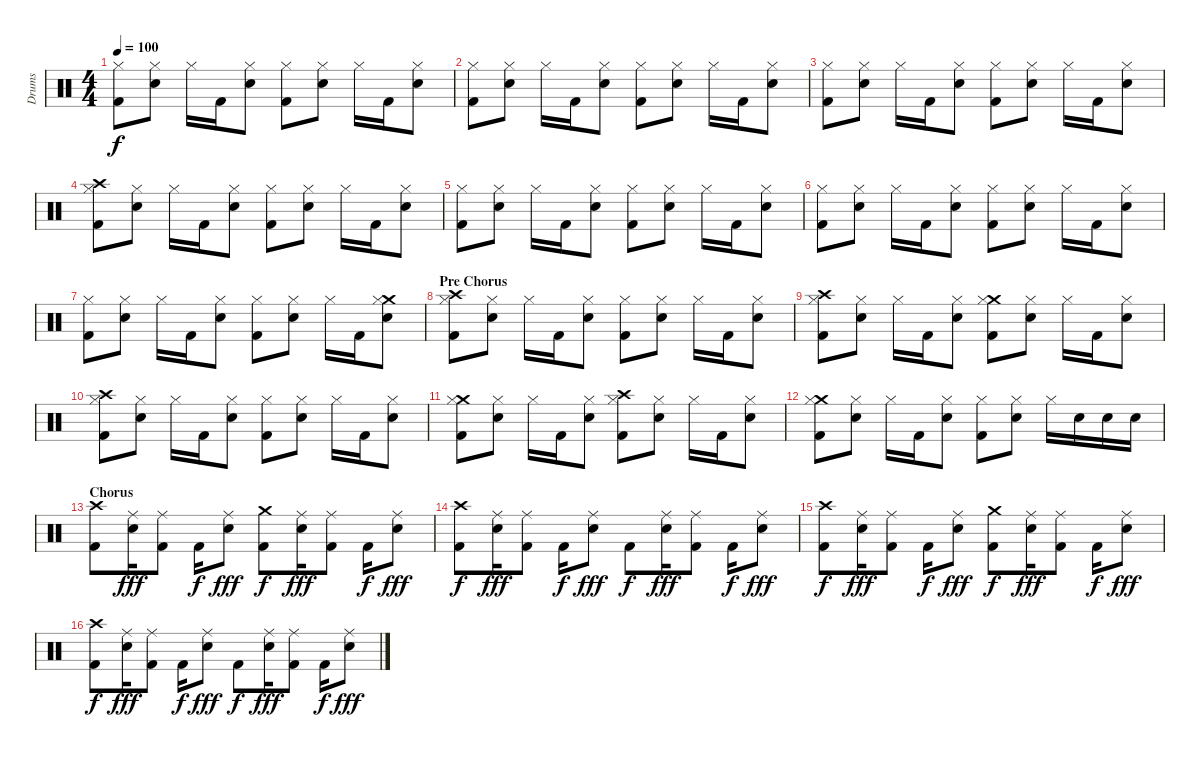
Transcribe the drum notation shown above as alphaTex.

\track ("Drums" "Drums") {instrument percussion}
\staff {score}
\articulation defaults
\ts (4 4)
\tempo 100
\clef neutral
\ks c
("Hi-Hat (closed)" "Kick (hit) 2").8{dy f} ("Hi-Hat (closed)" "Snare (hit) 2").8 "Hi-Hat (closed)".16 "Kick (hit) 2".16 ("Hi-Hat (closed)" "Snare (hit) 2").8 ("Hi-Hat (closed)" "Kick (hit) 2").8 ("Hi-Hat (closed)" "Snare (hit) 2").8 "Hi-Hat (closed)".16 "Kick (hit) 2".16 ("Hi-Hat (closed)" "Snare (hit) 2").8 |
("Hi-Hat (closed)" "Kick (hit) 2").8 ("Hi-Hat (closed)" "Snare (hit) 2").8 "Hi-Hat (closed)".16 "Kick (hit) 2".16 ("Hi-Hat (closed)" "Snare (hit) 2").8 ("Hi-Hat (closed)" "Kick (hit) 2").8 ("Hi-Hat (closed)" "Snare (hit) 2").8 "Hi-Hat (closed)".16 "Kick (hit) 2".16 ("Hi-Hat (closed)" "Snare (hit) 2").8 |
("Hi-Hat (closed)" "Kick (hit) 2").8 ("Hi-Hat (closed)" "Snare (hit) 2").8 "Hi-Hat (closed)".16 "Kick (hit) 2".16 ("Hi-Hat (closed)" "Snare (hit) 2").8 ("Hi-Hat (closed)" "Kick (hit) 2").8 ("Hi-Hat (closed)" "Snare (hit) 2").8 "Hi-Hat (closed)".16 "Kick (hit) 2".16 ("Hi-Hat (closed)" "Snare (hit) 2").8 |
("Crash high (hit)" "Hi-Hat (closed)" "Kick (hit) 2").8 ("Hi-Hat (closed)" "Snare (hit) 2").8 "Hi-Hat (closed)".16 "Kick (hit) 2".16 ("Hi-Hat (closed)" "Snare (hit) 2").8 ("Hi-Hat (closed)" "Kick (hit) 2").8 ("Hi-Hat (closed)" "Snare (hit) 2").8 "Hi-Hat (closed)".16 "Kick (hit) 2".16 ("Hi-Hat (closed)" "Snare (hit) 2").8 |
("Hi-Hat (closed)" "Kick (hit) 2").8 ("Hi-Hat (closed)" "Snare (hit) 2").8 "Hi-Hat (closed)".16 "Kick (hit) 2".16 ("Hi-Hat (closed)" "Snare (hit) 2").8 ("Hi-Hat (closed)" "Kick (hit) 2").8 ("Hi-Hat (closed)" "Snare (hit) 2").8 "Hi-Hat (closed)".16 "Kick (hit) 2".16 ("Hi-Hat (closed)" "Snare (hit) 2").8 |
("Hi-Hat (closed)" "Kick (hit) 2").8 ("Hi-Hat (closed)" "Snare (hit) 2").8 "Hi-Hat (closed)".16 "Kick (hit) 2".16 ("Hi-Hat (closed)" "Snare (hit) 2").8 ("Hi-Hat (closed)" "Kick (hit) 2").8 ("Hi-Hat (closed)" "Snare (hit) 2").8 "Hi-Hat (closed)".16 "Kick (hit) 2".16 ("Hi-Hat (closed)" "Snare (hit) 2").8 |
("Hi-Hat (closed)" "Kick (hit) 2").8 ("Hi-Hat (closed)" "Snare (hit) 2").8 "Hi-Hat (closed)".16 "Kick (hit) 2".16 ("Hi-Hat (closed)" "Snare (hit) 2").8 ("Hi-Hat (closed)" "Kick (hit) 2").8 ("Hi-Hat (closed)" "Snare (hit) 2").8 "Hi-Hat (closed)".16 "Kick (hit) 2".16 ("Crash medium (hit)" "Hi-Hat (closed)" "Snare (hit) 2").8 |
\section ("" "Pre Chorus")
("Crash high (hit)" "Hi-Hat (closed)" "Kick (hit) 2").8 ("Hi-Hat (closed)" "Snare (hit) 2").8 "Hi-Hat (closed)".16 "Kick (hit) 2".16 ("Hi-Hat (closed)" "Snare (hit) 2").8 ("Hi-Hat (closed)" "Kick (hit) 2").8 ("Hi-Hat (closed)" "Snare (hit) 2").8 "Hi-Hat (closed)".16 "Kick (hit) 2".16 ("Hi-Hat (closed)" "Snare (hit) 2").8 |
("Crash high (hit)" "Hi-Hat (closed)" "Kick (hit) 2").8 ("Hi-Hat (closed)" "Snare (hit) 2").8 "Hi-Hat (closed)".16 "Kick (hit) 2".16 ("Hi-Hat (closed)" "Snare (hit) 2").8 ("Crash medium (hit)" "Hi-Hat (closed)" "Kick (hit) 2").8 ("Hi-Hat (closed)" "Snare (hit) 2").8 "Hi-Hat (closed)".16 "Kick (hit) 2".16 ("Hi-Hat (closed)" "Snare (hit) 2").8 |
("Crash high (hit)" "Hi-Hat (closed)" "Kick (hit) 2").8 ("Hi-Hat (closed)" "Snare (hit) 2").8 "Hi-Hat (closed)".16 "Kick (hit) 2".16 ("Hi-Hat (closed)" "Snare (hit) 2").8 ("Hi-Hat (closed)" "Kick (hit) 2").8 ("Hi-Hat (closed)" "Snare (hit) 2").8 "Hi-Hat (closed)".16 "Kick (hit) 2".16 ("Hi-Hat (closed)" "Snare (hit) 2").8 |
("Crash medium (hit)" "Hi-Hat (closed)" "Kick (hit) 2").8 ("Hi-Hat (closed)" "Snare (hit) 2").8 "Hi-Hat (closed)".16 "Kick (hit) 2".16 ("Hi-Hat (closed)" "Snare (hit) 2").8 ("Crash high (hit)" "Hi-Hat (closed)" "Kick (hit) 2").8 ("Hi-Hat (closed)" "Snare (hit) 2").8 "Hi-Hat (closed)".16 "Kick (hit) 2".16 ("Hi-Hat (closed)" "Snare (hit) 2").8 |
("Crash medium (hit)" "Hi-Hat (closed)" "Kick (hit) 2").8 ("Hi-Hat (closed)" "Snare (hit) 2").8 "Hi-Hat (closed)".16 "Kick (hit) 2".16 ("Hi-Hat (closed)" "Snare (hit) 2").8 ("Hi-Hat (closed)" "Kick (hit) 2").8 ("Hi-Hat (closed)" "Snare (hit) 2").8 "Hi-Hat (closed)".16 "Snare (hit) 2".16 "Snare (hit) 2".16 "Snare (hit) 2".16 |
\section ("" "Chorus")
("Crash high (hit)" "Kick (hit) 2").8 ("Ride (middle)" "Snare (hit) 2").16{dy fff} ("Ride (middle)" "Kick (hit) 2").8 "Kick (hit) 2".16{dy f} ("Ride (middle)" "Snare (hit) 2").8{dy fff} ("Crash medium (hit)" "Kick (hit) 2").8{dy f} ("Ride (middle)" "Snare (hit) 2").16{dy fff} ("Ride (middle)" "Kick (hit) 2").8 "Kick (hit) 2".16{dy f} ("Ride (middle)" "Snare (hit) 2").8{dy fff} |
("Crash high (hit)" "Kick (hit) 2").8{dy f} ("Ride (middle)" "Snare (hit) 2").16{dy fff} ("Ride (middle)" "Kick (hit) 2").8 "Kick (hit) 2".16{dy f} ("Ride (middle)" "Snare (hit) 2").8{dy fff} "Kick (hit) 2".8{dy f} ("Ride (middle)" "Snare (hit) 2").16{dy fff} ("Ride (middle)" "Kick (hit) 2").8 "Kick (hit) 2".16{dy f} ("Ride (middle)" "Snare (hit) 2").8{dy fff} |
("Crash high (hit)" "Kick (hit) 2").8{dy f} ("Ride (middle)" "Snare (hit) 2").16{dy fff} ("Ride (middle)" "Kick (hit) 2").8 "Kick (hit) 2".16{dy f} ("Ride (middle)" "Snare (hit) 2").8{dy fff} ("Crash medium (hit)" "Kick (hit) 2").8{dy f} ("Ride (middle)" "Snare (hit) 2").16{dy fff} ("Ride (middle)" "Kick (hit) 2").8 "Kick (hit) 2".16{dy f} ("Ride (middle)" "Snare (hit) 2").8{dy fff} |
("Crash high (hit)" "Kick (hit) 2").8{dy f} ("Ride (middle)" "Snare (hit) 2").16{dy fff} ("Ride (middle)" "Kick (hit) 2").8 "Kick (hit) 2".16{dy f} ("Ride (middle)" "Snare (hit) 2").8{dy fff} "Kick (hit) 2".8{dy f} ("Ride (middle)" "Snare (hit) 2").16{dy fff} ("Ride (middle)" "Kick (hit) 2").8 "Kick (hit) 2".16{dy f} ("Ride (middle)" "Snare (hit) 2").8{dy fff}
